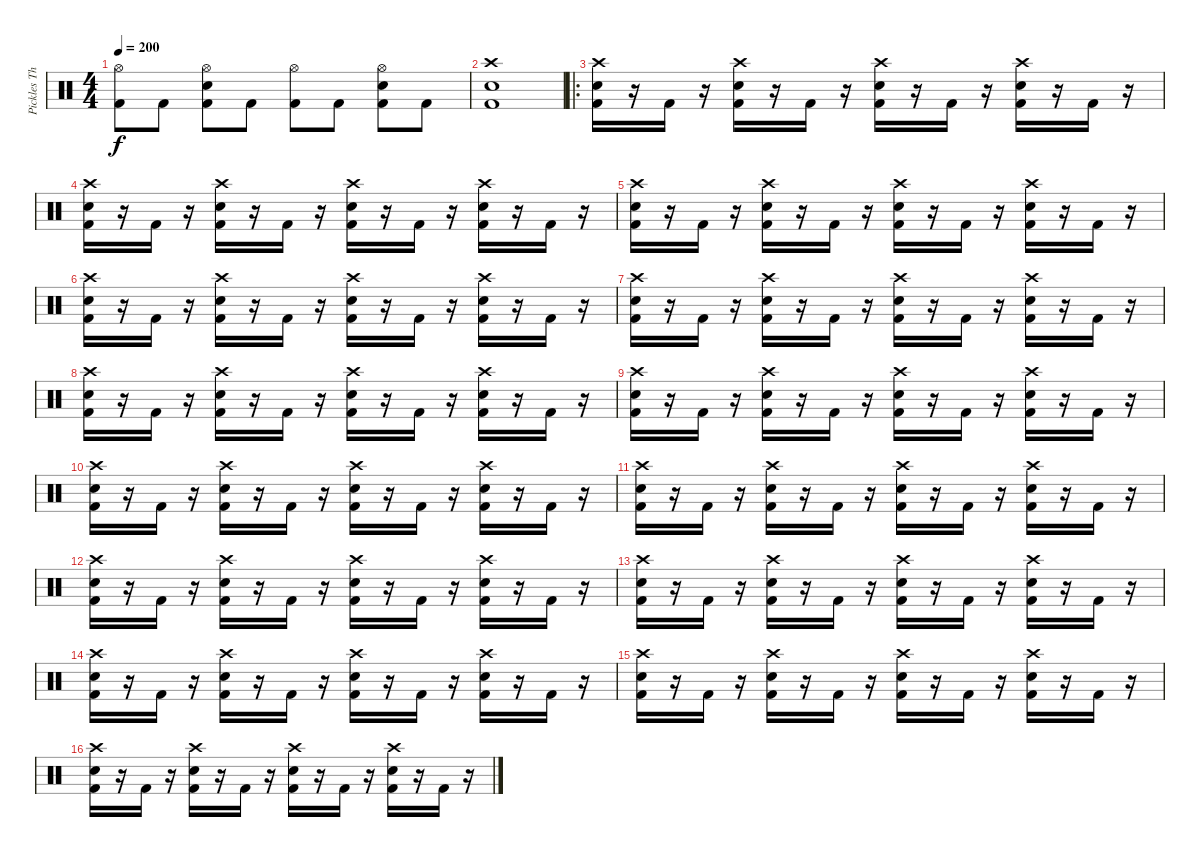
\track ("Pickles The Drummer" "Pickles Th") {instrument percussion}
\staff {score}
\articulation defaults
\ts (4 4)
\tempo 200
\clef neutral
\ks c
("Hi-Hat (open)" "Kick (hit) 2").8{dy f} "Kick (hit) 2".8 ("Hi-Hat (open)" "Electric Snare (hit)" "Kick (hit) 2").8 "Kick (hit) 2".8 ("Hi-Hat (open)" "Kick (hit) 2").8 "Kick (hit) 2".8 ("Hi-Hat (open)" "Electric Snare (hit)" "Kick (hit) 2").8 "Kick (hit) 2".8 |
("Crash high (hit)" "Electric Snare (hit)" "Kick (hit) 2").1 |
\ro
("Crash high (hit)" "Electric Snare (hit)" "Kick (hit) 2").16 r.16 "Kick (hit) 2".16 r.16 ("Crash high (hit)" "Electric Snare (hit)" "Kick (hit) 2").16 r.16 "Kick (hit) 2".16 r.16 ("Crash high (hit)" "Electric Snare (hit)" "Kick (hit) 2").16 r.16 "Kick (hit) 2".16 r.16 ("Crash high (hit)" "Electric Snare (hit)" "Kick (hit) 2").16 r.16 "Kick (hit) 2".16 r.16 |
("Crash high (hit)" "Electric Snare (hit)" "Kick (hit) 2").16 r.16 "Kick (hit) 2".16 r.16 ("Crash high (hit)" "Electric Snare (hit)" "Kick (hit) 2").16 r.16 "Kick (hit) 2".16 r.16 ("Crash high (hit)" "Electric Snare (hit)" "Kick (hit) 2").16 r.16 "Kick (hit) 2".16 r.16 ("Crash high (hit)" "Electric Snare (hit)" "Kick (hit) 2").16 r.16 "Kick (hit) 2".16 r.16 |
("Crash high (hit)" "Electric Snare (hit)" "Kick (hit) 2").16 r.16 "Kick (hit) 2".16 r.16 ("Crash high (hit)" "Electric Snare (hit)" "Kick (hit) 2").16 r.16 "Kick (hit) 2".16 r.16 ("Crash high (hit)" "Electric Snare (hit)" "Kick (hit) 2").16 r.16 "Kick (hit) 2".16 r.16 ("Crash high (hit)" "Electric Snare (hit)" "Kick (hit) 2").16 r.16 "Kick (hit) 2".16 r.16 |
("Crash high (hit)" "Electric Snare (hit)" "Kick (hit) 2").16 r.16 "Kick (hit) 2".16 r.16 ("Crash high (hit)" "Electric Snare (hit)" "Kick (hit) 2").16 r.16 "Kick (hit) 2".16 r.16 ("Crash high (hit)" "Electric Snare (hit)" "Kick (hit) 2").16 r.16 "Kick (hit) 2".16 r.16 ("Crash high (hit)" "Electric Snare (hit)" "Kick (hit) 2").16 r.16 "Kick (hit) 2".16 r.16 |
("Crash high (hit)" "Electric Snare (hit)" "Kick (hit) 2").16 r.16 "Kick (hit) 2".16 r.16 ("Crash high (hit)" "Electric Snare (hit)" "Kick (hit) 2").16 r.16 "Kick (hit) 2".16 r.16 ("Crash high (hit)" "Electric Snare (hit)" "Kick (hit) 2").16 r.16 "Kick (hit) 2".16 r.16 ("Crash high (hit)" "Electric Snare (hit)" "Kick (hit) 2").16 r.16 "Kick (hit) 2".16 r.16 |
("Crash high (hit)" "Electric Snare (hit)" "Kick (hit) 2").16 r.16 "Kick (hit) 2".16 r.16 ("Crash high (hit)" "Electric Snare (hit)" "Kick (hit) 2").16 r.16 "Kick (hit) 2".16 r.16 ("Crash high (hit)" "Electric Snare (hit)" "Kick (hit) 2").16 r.16 "Kick (hit) 2".16 r.16 ("Crash high (hit)" "Electric Snare (hit)" "Kick (hit) 2").16 r.16 "Kick (hit) 2".16 r.16 |
("Crash high (hit)" "Electric Snare (hit)" "Kick (hit) 2").16 r.16 "Kick (hit) 2".16 r.16 ("Crash high (hit)" "Electric Snare (hit)" "Kick (hit) 2").16 r.16 "Kick (hit) 2".16 r.16 ("Crash high (hit)" "Electric Snare (hit)" "Kick (hit) 2").16 r.16 "Kick (hit) 2".16 r.16 ("Crash high (hit)" "Electric Snare (hit)" "Kick (hit) 2").16 r.16 "Kick (hit) 2".16 r.16 |
("Crash high (hit)" "Electric Snare (hit)" "Kick (hit) 2").16 r.16 "Kick (hit) 2".16 r.16 ("Crash high (hit)" "Electric Snare (hit)" "Kick (hit) 2").16 r.16 "Kick (hit) 2".16 r.16 ("Crash high (hit)" "Electric Snare (hit)" "Kick (hit) 2").16 r.16 "Kick (hit) 2".16 r.16 ("Crash high (hit)" "Electric Snare (hit)" "Kick (hit) 2").16 r.16 "Kick (hit) 2".16 r.16 |
("Crash high (hit)" "Electric Snare (hit)" "Kick (hit) 2").16 r.16 "Kick (hit) 2".16 r.16 ("Crash high (hit)" "Electric Snare (hit)" "Kick (hit) 2").16 r.16 "Kick (hit) 2".16 r.16 ("Crash high (hit)" "Electric Snare (hit)" "Kick (hit) 2").16 r.16 "Kick (hit) 2".16 r.16 ("Crash high (hit)" "Electric Snare (hit)" "Kick (hit) 2").16 r.16 "Kick (hit) 2".16 r.16 |
("Crash high (hit)" "Electric Snare (hit)" "Kick (hit) 2").16 r.16 "Kick (hit) 2".16 r.16 ("Crash high (hit)" "Electric Snare (hit)" "Kick (hit) 2").16 r.16 "Kick (hit) 2".16 r.16 ("Crash high (hit)" "Electric Snare (hit)" "Kick (hit) 2").16 r.16 "Kick (hit) 2".16 r.16 ("Crash high (hit)" "Electric Snare (hit)" "Kick (hit) 2").16 r.16 "Kick (hit) 2".16 r.16 |
("Crash high (hit)" "Electric Snare (hit)" "Kick (hit) 2").16 r.16 "Kick (hit) 2".16 r.16 ("Crash high (hit)" "Electric Snare (hit)" "Kick (hit) 2").16 r.16 "Kick (hit) 2".16 r.16 ("Crash high (hit)" "Electric Snare (hit)" "Kick (hit) 2").16 r.16 "Kick (hit) 2".16 r.16 ("Crash high (hit)" "Electric Snare (hit)" "Kick (hit) 2").16 r.16 "Kick (hit) 2".16 r.16 |
("Crash high (hit)" "Electric Snare (hit)" "Kick (hit) 2").16 r.16 "Kick (hit) 2".16 r.16 ("Crash high (hit)" "Electric Snare (hit)" "Kick (hit) 2").16 r.16 "Kick (hit) 2".16 r.16 ("Crash high (hit)" "Electric Snare (hit)" "Kick (hit) 2").16 r.16 "Kick (hit) 2".16 r.16 ("Crash high (hit)" "Electric Snare (hit)" "Kick (hit) 2").16 r.16 "Kick (hit) 2".16 r.16 |
("Crash high (hit)" "Electric Snare (hit)" "Kick (hit) 2").16 r.16 "Kick (hit) 2".16 r.16 ("Crash high (hit)" "Electric Snare (hit)" "Kick (hit) 2").16 r.16 "Kick (hit) 2".16 r.16 ("Crash high (hit)" "Electric Snare (hit)" "Kick (hit) 2").16 r.16 "Kick (hit) 2".16 r.16 ("Crash high (hit)" "Electric Snare (hit)" "Kick (hit) 2").16 r.16 "Kick (hit) 2".16 r.16 |
("Crash high (hit)" "Electric Snare (hit)" "Kick (hit) 2").16 r.16 "Kick (hit) 2".16 r.16 ("Crash high (hit)" "Electric Snare (hit)" "Kick (hit) 2").16 r.16 "Kick (hit) 2".16 r.16 ("Crash high (hit)" "Electric Snare (hit)" "Kick (hit) 2").16 r.16 "Kick (hit) 2".16 r.16 ("Crash high (hit)" "Electric Snare (hit)" "Kick (hit) 2").16 r.16 "Kick (hit) 2".16 r.16
